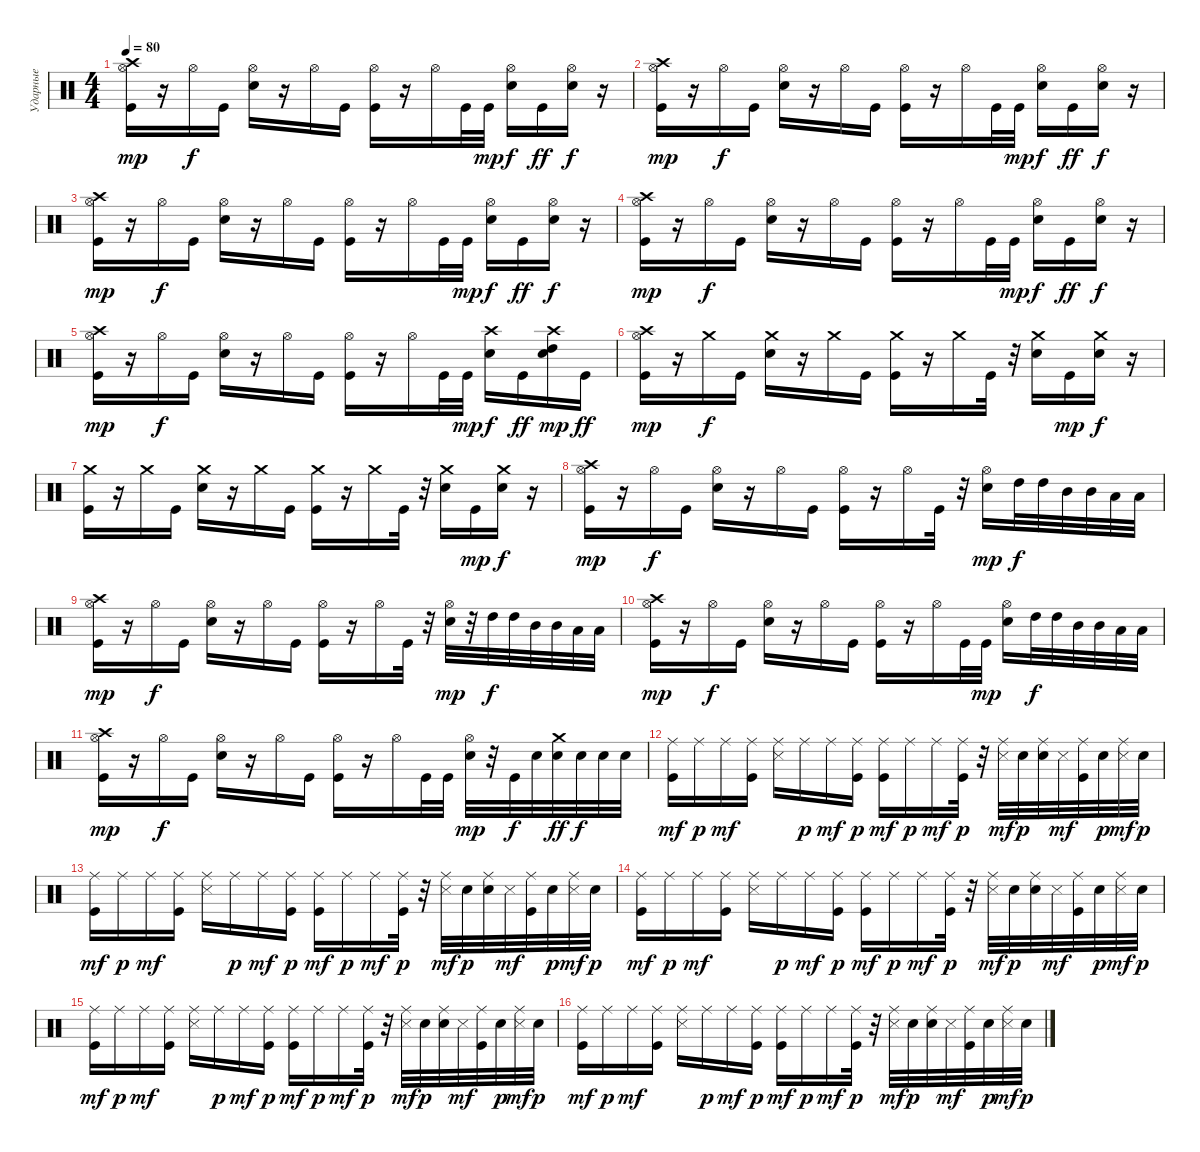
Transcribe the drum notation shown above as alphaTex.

\track ("Ударные" "Ударные") {instrument percussion}
\staff {score}
\articulation defaults
\ts (4 4)
\tempo 80
\clef neutral
\ks c
("Crash high (hit)" "Hi-Hat (open)" "Kick (hit)").16{dy mp} r.16 "Hi-Hat (open)".16{dy f} "Kick (hit)".16 ("Hi-Hat (open)" "Electric Snare (hit)").16 r.16 "Hi-Hat (open)".16 "Kick (hit)".16 ("Hi-Hat (open)" "Kick (hit)").16 r.16 "Hi-Hat (open)".16 "Kick (hit)".32 "Kick (hit)".32{dy mp} ("Hi-Hat (open)" "Electric Snare (hit)").16{dy f} "Kick (hit)".16{dy ff} ("Hi-Hat (open)" "Electric Snare (hit)").16{dy f} r.16 |
("Crash high (hit)" "Hi-Hat (open)" "Kick (hit)").16{dy mp} r.16 "Hi-Hat (open)".16{dy f} "Kick (hit)".16 ("Hi-Hat (open)" "Electric Snare (hit)").16 r.16 "Hi-Hat (open)".16 "Kick (hit)".16 ("Hi-Hat (open)" "Kick (hit)").16 r.16 "Hi-Hat (open)".16 "Kick (hit)".32 "Kick (hit)".32{dy mp} ("Hi-Hat (open)" "Electric Snare (hit)").16{dy f} "Kick (hit)".16{dy ff} ("Hi-Hat (open)" "Electric Snare (hit)").16{dy f} r.16 |
("Crash high (hit)" "Hi-Hat (open)" "Kick (hit)").16{dy mp} r.16 "Hi-Hat (open)".16{dy f} "Kick (hit)".16 ("Hi-Hat (open)" "Electric Snare (hit)").16 r.16 "Hi-Hat (open)".16 "Kick (hit)".16 ("Hi-Hat (open)" "Kick (hit)").16 r.16 "Hi-Hat (open)".16 "Kick (hit)".32 "Kick (hit)".32{dy mp} ("Hi-Hat (open)" "Electric Snare (hit)").16{dy f} "Kick (hit)".16{dy ff} ("Hi-Hat (open)" "Electric Snare (hit)").16{dy f} r.16 |
("Crash high (hit)" "Hi-Hat (open)" "Kick (hit)").16{dy mp} r.16 "Hi-Hat (open)".16{dy f} "Kick (hit)".16 ("Hi-Hat (open)" "Electric Snare (hit)").16 r.16 "Hi-Hat (open)".16 "Kick (hit)".16 ("Hi-Hat (open)" "Kick (hit)").16 r.16 "Hi-Hat (open)".16 "Kick (hit)".32 "Kick (hit)".32{dy mp} ("Hi-Hat (open)" "Electric Snare (hit)").16{dy f} "Kick (hit)".16{dy ff} ("Hi-Hat (open)" "Electric Snare (hit)").16{dy f} r.16 |
("Crash high (hit)" "Hi-Hat (open)" "Kick (hit)").16{dy mp} r.16 "Hi-Hat (open)".16{dy f} "Kick (hit)".16 ("Hi-Hat (open)" "Electric Snare (hit)").16 r.16 "Hi-Hat (open)".16 "Kick (hit)".16 ("Hi-Hat (open)" "Kick (hit)").16 r.16 "Hi-Hat (open)".16 "Kick (hit)".32 "Kick (hit)".32{dy mp} ("Crash high (hit)" "Electric Snare (hit)").16{dy f} "Kick (hit)".16{dy ff} ("Crash high (hit)" "High Tom (hit)" "Electric Snare (hit)").16{dy mp} "Kick (hit)".16{dy ff} |
("Crash high (hit)" "Hi-Hat (open)" "Kick (hit)").16{dy mp} r.16 "Crash medium (hit)".16{dy f} "Kick (hit)".16 ("Crash medium (hit)" "Electric Snare (hit)").16 r.16 "Crash medium (hit)".16 "Kick (hit)".16 ("Crash medium (hit)" "Kick (hit)").16 r.16 "Crash medium (hit)".16 "Kick (hit)".32 r.32 ("Crash medium (hit)" "Electric Snare (hit)").16 "Kick (hit)".16{dy mp} ("Crash medium (hit)" "Electric Snare (hit)").16{dy f} r.16 |
("Crash medium (hit)" "Kick (hit)").16 r.16 "Crash medium (hit)".16 "Kick (hit)".16 ("Crash medium (hit)" "Electric Snare (hit)").16 r.16 "Crash medium (hit)".16 "Kick (hit)".16 ("Crash medium (hit)" "Kick (hit)").16 r.16 "Crash medium (hit)".16 "Kick (hit)".32 r.32 ("Crash medium (hit)" "Electric Snare (hit)").16 "Kick (hit)".16{dy mp} ("Crash medium (hit)" "Electric Snare (hit)").16{dy f} r.16 |
("Crash high (hit)" "Hi-Hat (open)" "Kick (hit)").16{dy mp} r.16 "Hi-Hat (open)".16{dy f} "Kick (hit)".16 ("Hi-Hat (open)" "Electric Snare (hit)").16 r.16 "Hi-Hat (open)".16 "Kick (hit)".16 ("Hi-Hat (open)" "Kick (hit)").16 r.16 "Hi-Hat (open)".16 "Kick (hit)".32 r.32 ("Hi-Hat (open)" "Electric Snare (hit)").16{dy mp} "High Tom (hit)".32{dy f} "High Tom (hit)".32 "Mid Tom (hit)".32 "Mid Tom (hit)".32 "Low Tom (hit)".32 "Low Tom (hit)".32 |
("Crash high (hit)" "Hi-Hat (open)" "Kick (hit)").16{dy mp} r.16 "Hi-Hat (open)".16{dy f} "Kick (hit)".16 ("Hi-Hat (open)" "Electric Snare (hit)").16 r.16 "Hi-Hat (open)".16 "Kick (hit)".16 ("Hi-Hat (open)" "Kick (hit)").16 r.16 "Hi-Hat (open)".16 "Kick (hit)".32 r.32 ("Hi-Hat (open)" "Electric Snare (hit)").32{dy mp} r.32 "High Tom (hit)".32{dy f} "High Tom (hit)".32 "Mid Tom (hit)".32 "Mid Tom (hit)".32 "Low Tom (hit)".32 "Low Tom (hit)".32 |
("Crash high (hit)" "Hi-Hat (open)" "Kick (hit)").16{dy mp} r.16 "Hi-Hat (open)".16{dy f} "Kick (hit)".16 ("Hi-Hat (open)" "Electric Snare (hit)").16 r.16 "Hi-Hat (open)".16 "Kick (hit)".16 ("Hi-Hat (open)" "Kick (hit)").16 r.16 "Hi-Hat (open)".16 "Kick (hit)".32 "Kick (hit)".32{dy mp} ("Hi-Hat (open)" "Electric Snare (hit)").16 "High Tom (hit)".32{dy f} "High Tom (hit)".32 "Mid Tom (hit)".32 "Mid Tom (hit)".32 "Low Tom (hit)".32 "Low Tom (hit)".32 |
("Crash high (hit)" "Hi-Hat (open)" "Kick (hit)").16{dy mp} r.16 "Hi-Hat (open)".16{dy f} "Kick (hit)".16 ("Hi-Hat (open)" "Electric Snare (hit)").16 r.16 "Hi-Hat (open)".16 "Kick (hit)".16 ("Hi-Hat (open)" "Kick (hit)").16 r.16 "Hi-Hat (open)".16 "Kick (hit)".32 "Kick (hit)".32 ("Hi-Hat (open)" "Electric Snare (hit)").32{dy mp} r.32 "Kick (hit)".32{dy f} "Snare (hit)".32 ("Crash medium (hit)" "Electric Snare (hit)").32{dy ff} "Snare (hit)".32{dy f} "Snare (hit)".32 "Snare (hit)".32 |
("Ride (middle)" "Kick (hit)").16{dy mf} "Ride (middle)".16{dy p} "Ride (middle)".16{dy mf} ("Ride (middle)" "Kick (hit)").16 ("Ride (middle)" "Snare (side stick) 3").16 "Ride (middle)".16{dy p} "Ride (middle)".16{dy mf} ("Ride (middle)" "Kick (hit)").16{dy p} ("Ride (middle)" "Kick (hit)").16{dy mf} "Ride (middle)".16{dy p} "Ride (middle)".16{dy mf} ("Ride (middle)" "Kick (hit)").32{dy p} r.32 ("Ride (middle)" "Snare (side stick) 3").32{dy mf} "Snare (hit)".32{dy p} ("Ride (middle)" "Snare (hit)").32 "Snare (side stick) 3".32{dy mf} ("Ride (middle)" "Kick (hit)").32 "Snare (hit)".32{dy p} ("Ride (middle)" "Snare (side stick) 3").32{dy mf} "Snare (hit)".32{dy p} |
("Ride (middle)" "Kick (hit)").16{dy mf} "Ride (middle)".16{dy p} "Ride (middle)".16{dy mf} ("Ride (middle)" "Kick (hit)").16 ("Ride (middle)" "Snare (side stick) 3").16 "Ride (middle)".16{dy p} "Ride (middle)".16{dy mf} ("Ride (middle)" "Kick (hit)").16{dy p} ("Ride (middle)" "Kick (hit)").16{dy mf} "Ride (middle)".16{dy p} "Ride (middle)".16{dy mf} ("Ride (middle)" "Kick (hit)").32{dy p} r.32 ("Ride (middle)" "Snare (side stick) 3").32{dy mf} "Snare (hit)".32{dy p} ("Ride (middle)" "Snare (hit)").32 "Snare (side stick) 3".32{dy mf} ("Ride (middle)" "Kick (hit)").32 "Snare (hit)".32{dy p} ("Ride (middle)" "Snare (side stick) 3").32{dy mf} "Snare (hit)".32{dy p} |
("Ride (middle)" "Kick (hit)").16{dy mf} "Ride (middle)".16{dy p} "Ride (middle)".16{dy mf} ("Ride (middle)" "Kick (hit)").16 ("Ride (middle)" "Snare (side stick) 3").16 "Ride (middle)".16{dy p} "Ride (middle)".16{dy mf} ("Ride (middle)" "Kick (hit)").16{dy p} ("Ride (middle)" "Kick (hit)").16{dy mf} "Ride (middle)".16{dy p} "Ride (middle)".16{dy mf} ("Ride (middle)" "Kick (hit)").32{dy p} r.32 ("Ride (middle)" "Snare (side stick) 3").32{dy mf} "Snare (hit)".32{dy p} ("Ride (middle)" "Snare (hit)").32 "Snare (side stick) 3".32{dy mf} ("Ride (middle)" "Kick (hit)").32 "Snare (hit)".32{dy p} ("Ride (middle)" "Snare (side stick) 3").32{dy mf} "Snare (hit)".32{dy p} |
("Ride (middle)" "Kick (hit)").16{dy mf} "Ride (middle)".16{dy p} "Ride (middle)".16{dy mf} ("Ride (middle)" "Kick (hit)").16 ("Ride (middle)" "Snare (side stick) 3").16 "Ride (middle)".16{dy p} "Ride (middle)".16{dy mf} ("Ride (middle)" "Kick (hit)").16{dy p} ("Ride (middle)" "Kick (hit)").16{dy mf} "Ride (middle)".16{dy p} "Ride (middle)".16{dy mf} ("Ride (middle)" "Kick (hit)").32{dy p} r.32 ("Ride (middle)" "Snare (side stick) 3").32{dy mf} "Snare (hit)".32{dy p} ("Ride (middle)" "Snare (hit)").32 "Snare (side stick) 3".32{dy mf} ("Ride (middle)" "Kick (hit)").32 "Snare (hit)".32{dy p} ("Ride (middle)" "Snare (side stick) 3").32{dy mf} "Snare (hit)".32{dy p} |
("Ride (middle)" "Kick (hit)").16{dy mf} "Ride (middle)".16{dy p} "Ride (middle)".16{dy mf} ("Ride (middle)" "Kick (hit)").16 ("Ride (middle)" "Snare (side stick) 3").16 "Ride (middle)".16{dy p} "Ride (middle)".16{dy mf} ("Ride (middle)" "Kick (hit)").16{dy p} ("Ride (middle)" "Kick (hit)").16{dy mf} "Ride (middle)".16{dy p} "Ride (middle)".16{dy mf} ("Ride (middle)" "Kick (hit)").32{dy p} r.32 ("Ride (middle)" "Snare (side stick) 3").32{dy mf} "Snare (hit)".32{dy p} ("Ride (middle)" "Snare (hit)").32 "Snare (side stick) 3".32{dy mf} ("Ride (middle)" "Kick (hit)").32 "Snare (hit)".32{dy p} ("Ride (middle)" "Snare (side stick) 3").32{dy mf} "Snare (hit)".32{dy p}
